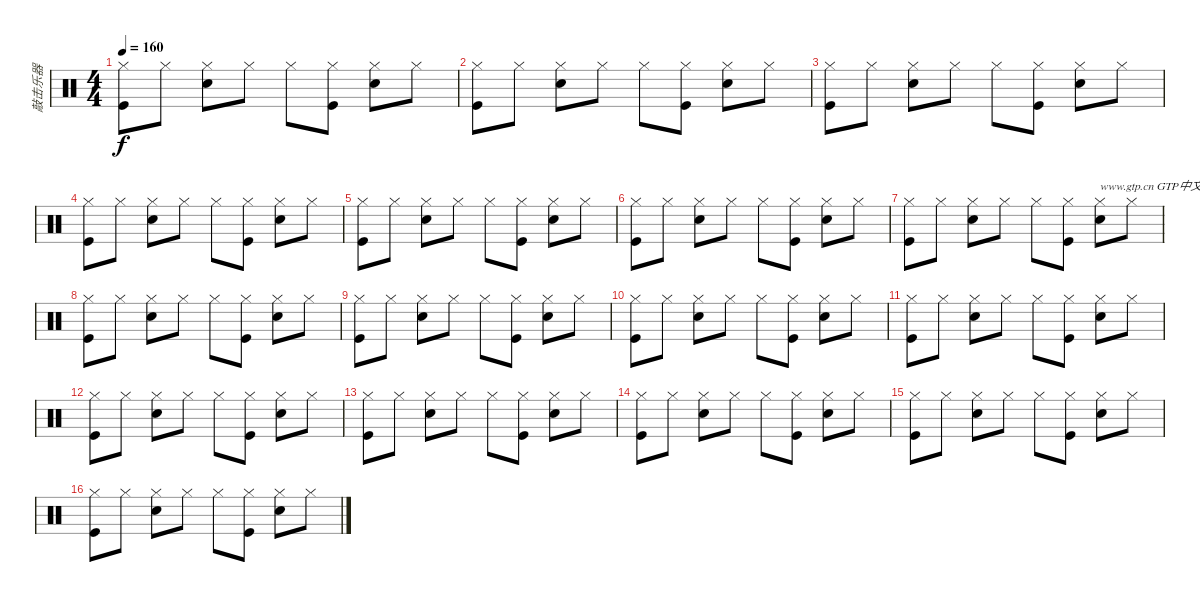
\track ("敲击乐器" "敲击乐器") {instrument percussion}
\staff {score}
\articulation defaults
\ts (4 4)
\tempo 160
\clef neutral
\ks c
("Hi-Hat (closed)" "Kick (hit)").8{dy f} "Hi-Hat (closed)".8 ("Hi-Hat (closed)" "Electric Snare (hit)").8 "Hi-Hat (closed)".8 "Hi-Hat (closed)".8 ("Hi-Hat (closed)" "Kick (hit)").8 ("Hi-Hat (closed)" "Electric Snare (hit)").8 "Hi-Hat (closed)".8 |
("Hi-Hat (closed)" "Kick (hit)").8 "Hi-Hat (closed)".8 ("Hi-Hat (closed)" "Electric Snare (hit)").8 "Hi-Hat (closed)".8 "Hi-Hat (closed)".8 ("Hi-Hat (closed)" "Kick (hit)").8 ("Hi-Hat (closed)" "Electric Snare (hit)").8 "Hi-Hat (closed)".8 |
("Hi-Hat (closed)" "Kick (hit)").8 "Hi-Hat (closed)".8 ("Hi-Hat (closed)" "Electric Snare (hit)").8 "Hi-Hat (closed)".8 "Hi-Hat (closed)".8 ("Hi-Hat (closed)" "Kick (hit)").8 ("Hi-Hat (closed)" "Electric Snare (hit)").8 "Hi-Hat (closed)".8 |
("Hi-Hat (closed)" "Kick (hit)").8 "Hi-Hat (closed)".8 ("Hi-Hat (closed)" "Electric Snare (hit)").8 "Hi-Hat (closed)".8 "Hi-Hat (closed)".8 ("Hi-Hat (closed)" "Kick (hit)").8 ("Hi-Hat (closed)" "Electric Snare (hit)").8 "Hi-Hat (closed)".8 |
("Hi-Hat (closed)" "Kick (hit)").8 "Hi-Hat (closed)".8 ("Hi-Hat (closed)" "Electric Snare (hit)").8 "Hi-Hat (closed)".8 "Hi-Hat (closed)".8 ("Hi-Hat (closed)" "Kick (hit)").8 ("Hi-Hat (closed)" "Electric Snare (hit)").8 "Hi-Hat (closed)".8 |
("Hi-Hat (closed)" "Kick (hit)").8 "Hi-Hat (closed)".8 ("Hi-Hat (closed)" "Electric Snare (hit)").8 "Hi-Hat (closed)".8 "Hi-Hat (closed)".8 ("Hi-Hat (closed)" "Kick (hit)").8 ("Hi-Hat (closed)" "Electric Snare (hit)").8 "Hi-Hat (closed)".8 |
("Hi-Hat (closed)" "Kick (hit)").8 "Hi-Hat (closed)".8 ("Hi-Hat (closed)" "Electric Snare (hit)").8 "Hi-Hat (closed)".8 "Hi-Hat (closed)".8 ("Hi-Hat (closed)" "Kick (hit)").8 ("Hi-Hat (closed)" "Electric Snare (hit)").8{txt "www.gtp.cn GTP中文娱乐网搜集  吉它手的好去处"} "Hi-Hat (closed)".8 |
("Hi-Hat (closed)" "Kick (hit)").8 "Hi-Hat (closed)".8 ("Hi-Hat (closed)" "Electric Snare (hit)").8 "Hi-Hat (closed)".8 "Hi-Hat (closed)".8 ("Hi-Hat (closed)" "Kick (hit)").8 ("Hi-Hat (closed)" "Electric Snare (hit)").8 "Hi-Hat (closed)".8 |
("Hi-Hat (closed)" "Kick (hit)").8 "Hi-Hat (closed)".8 ("Hi-Hat (closed)" "Electric Snare (hit)").8 "Hi-Hat (closed)".8 "Hi-Hat (closed)".8 ("Hi-Hat (closed)" "Kick (hit)").8 ("Hi-Hat (closed)" "Electric Snare (hit)").8 "Hi-Hat (closed)".8 |
("Hi-Hat (closed)" "Kick (hit)").8 "Hi-Hat (closed)".8 ("Hi-Hat (closed)" "Electric Snare (hit)").8 "Hi-Hat (closed)".8 "Hi-Hat (closed)".8 ("Hi-Hat (closed)" "Kick (hit)").8 ("Hi-Hat (closed)" "Electric Snare (hit)").8 "Hi-Hat (closed)".8 |
("Hi-Hat (closed)" "Kick (hit)").8 "Hi-Hat (closed)".8 ("Hi-Hat (closed)" "Electric Snare (hit)").8 "Hi-Hat (closed)".8 "Hi-Hat (closed)".8 ("Hi-Hat (closed)" "Kick (hit)").8 ("Hi-Hat (closed)" "Electric Snare (hit)").8 "Hi-Hat (closed)".8 |
("Hi-Hat (closed)" "Kick (hit)").8 "Hi-Hat (closed)".8 ("Hi-Hat (closed)" "Electric Snare (hit)").8 "Hi-Hat (closed)".8 "Hi-Hat (closed)".8 ("Hi-Hat (closed)" "Kick (hit)").8 ("Hi-Hat (closed)" "Electric Snare (hit)").8 "Hi-Hat (closed)".8 |
("Hi-Hat (closed)" "Kick (hit)").8 "Hi-Hat (closed)".8 ("Hi-Hat (closed)" "Electric Snare (hit)").8 "Hi-Hat (closed)".8 "Hi-Hat (closed)".8 ("Hi-Hat (closed)" "Kick (hit)").8 ("Hi-Hat (closed)" "Electric Snare (hit)").8 "Hi-Hat (closed)".8 |
("Hi-Hat (closed)" "Kick (hit)").8 "Hi-Hat (closed)".8 ("Hi-Hat (closed)" "Electric Snare (hit)").8 "Hi-Hat (closed)".8 "Hi-Hat (closed)".8 ("Hi-Hat (closed)" "Kick (hit)").8 ("Hi-Hat (closed)" "Electric Snare (hit)").8 "Hi-Hat (closed)".8 |
("Hi-Hat (closed)" "Kick (hit)").8 "Hi-Hat (closed)".8 ("Hi-Hat (closed)" "Electric Snare (hit)").8 "Hi-Hat (closed)".8 "Hi-Hat (closed)".8 ("Hi-Hat (closed)" "Kick (hit)").8 ("Hi-Hat (closed)" "Electric Snare (hit)").8 "Hi-Hat (closed)".8 |
("Hi-Hat (closed)" "Kick (hit)").8 "Hi-Hat (closed)".8 ("Hi-Hat (closed)" "Electric Snare (hit)").8 "Hi-Hat (closed)".8 "Hi-Hat (closed)".8 ("Hi-Hat (closed)" "Kick (hit)").8 ("Hi-Hat (closed)" "Electric Snare (hit)").8 "Hi-Hat (closed)".8
